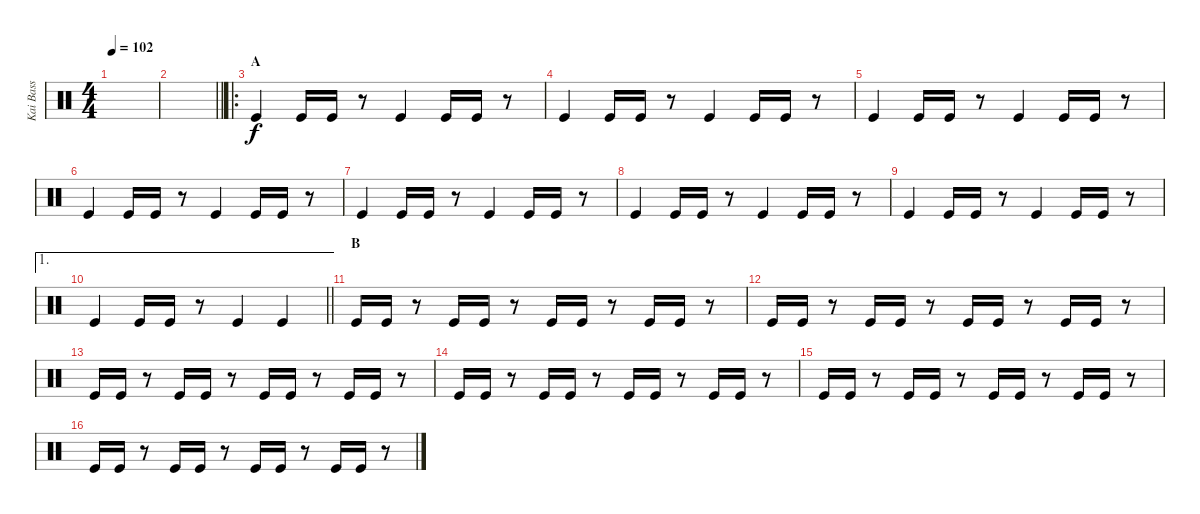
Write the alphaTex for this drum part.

\track ("Kai Bass" "Kai Bass") {instrument percussion}
\staff {score}
\articulation defaults
\ts (4 4)
\tempo 102
\clef neutral
\ks c
|
\barLineRight lightlight
|
\ro
\section ("" "A")
"Kick (hit)".4 "Kick (hit)".16 "Kick (hit)".16 r.8 "Kick (hit)".4 "Kick (hit)".16 "Kick (hit)".16 r.8 |
"Kick (hit)".4 "Kick (hit)".16 "Kick (hit)".16 r.8 "Kick (hit)".4 "Kick (hit)".16 "Kick (hit)".16 r.8 |
"Kick (hit)".4 "Kick (hit)".16 "Kick (hit)".16 r.8 "Kick (hit)".4 "Kick (hit)".16 "Kick (hit)".16 r.8 |
"Kick (hit)".4 "Kick (hit)".16 "Kick (hit)".16 r.8 "Kick (hit)".4 "Kick (hit)".16 "Kick (hit)".16 r.8 |
"Kick (hit)".4 "Kick (hit)".16 "Kick (hit)".16 r.8 "Kick (hit)".4 "Kick (hit)".16 "Kick (hit)".16 r.8 |
"Kick (hit)".4 "Kick (hit)".16 "Kick (hit)".16 r.8 "Kick (hit)".4 "Kick (hit)".16 "Kick (hit)".16 r.8 |
"Kick (hit)".4 "Kick (hit)".16 "Kick (hit)".16 r.8 "Kick (hit)".4 "Kick (hit)".16 "Kick (hit)".16 r.8 |
\ae 1
\barLineRight lightlight "Kick (hit)".4 "Kick (hit)".16 "Kick (hit)".16
r.8 "Kick (hit)".4 "Kick (hit)".4 |
\section ("" "B")
"Kick (hit)".16 "Kick (hit)".16 r.8 "Kick (hit)".16 "Kick (hit)".16 r.8 "Kick (hit)".16 "Kick (hit)".16 r.8 "Kick (hit)".16 "Kick (hit)".16 r.8 |
"Kick (hit)".16 "Kick (hit)".16 r.8 "Kick (hit)".16 "Kick (hit)".16 r.8 "Kick (hit)".16 "Kick (hit)".16 r.8 "Kick (hit)".16 "Kick (hit)".16 r.8 |
"Kick (hit)".16 "Kick (hit)".16 r.8 "Kick (hit)".16 "Kick (hit)".16 r.8 "Kick (hit)".16 "Kick (hit)".16 r.8 "Kick (hit)".16 "Kick (hit)".16 r.8 |
"Kick (hit)".16 "Kick (hit)".16 r.8 "Kick (hit)".16 "Kick (hit)".16 r.8 "Kick (hit)".16 "Kick (hit)".16 r.8 "Kick (hit)".16 "Kick (hit)".16 r.8 |
"Kick (hit)".16 "Kick (hit)".16 r.8 "Kick (hit)".16 "Kick (hit)".16 r.8 "Kick (hit)".16 "Kick (hit)".16 r.8 "Kick (hit)".16 "Kick (hit)".16 r.8 |
"Kick (hit)".16 "Kick (hit)".16 r.8 "Kick (hit)".16 "Kick (hit)".16 r.8 "Kick (hit)".16 "Kick (hit)".16 r.8 "Kick (hit)".16 "Kick (hit)".16 r.8
